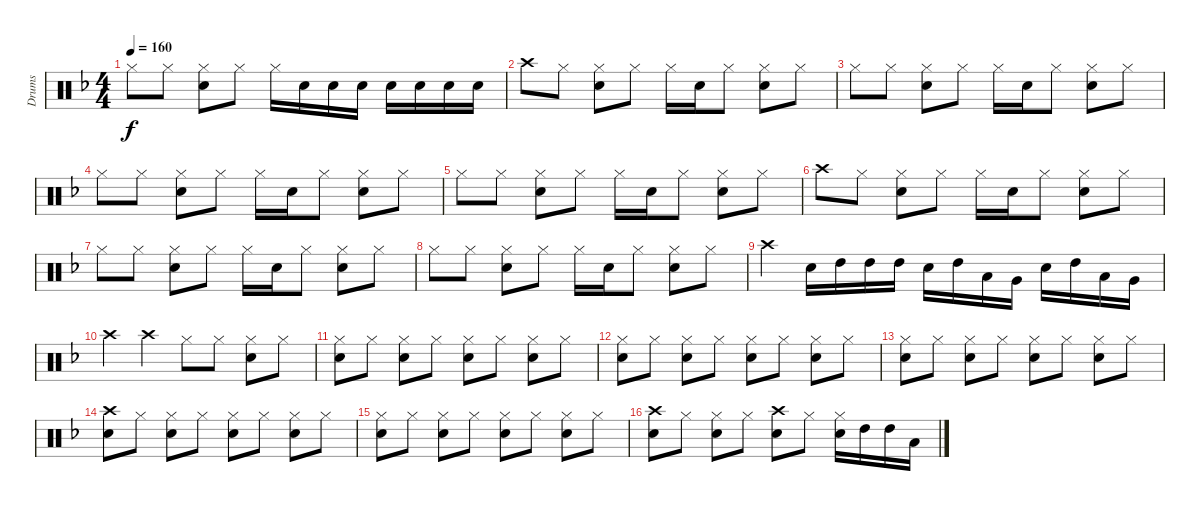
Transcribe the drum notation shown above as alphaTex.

\track ("Drums" "Drums") {instrument percussion}
\staff {score}
\articulation defaults
\ts (4 4)
\tempo 160
\clef neutral
\ks f "Hi-Hat (closed)".8{dy f} "Hi-Hat (closed)".8
("Hi-Hat (closed)" "Snare (hit) 2").8 "Hi-Hat (closed)".8 "Hi-Hat (closed)".16 "Snare (hit) 2".16 "Snare (hit) 2".16 "Snare (hit) 2".16 "Snare (hit) 2".16 "Snare (hit) 2".16 "Snare (hit) 2".16 "Snare (hit) 2".16 |
"Crash high (hit)".8 "Hi-Hat (closed)".8 ("Hi-Hat (closed)" "Snare (hit) 2").8 "Hi-Hat (closed)".8 "Hi-Hat (closed)".16 "Snare (hit) 2".16 "Hi-Hat (closed)".8 ("Hi-Hat (closed)" "Snare (hit) 2").8 "Hi-Hat (closed)".8 |
"Hi-Hat (closed)".8 "Hi-Hat (closed)".8 ("Hi-Hat (closed)" "Snare (hit) 2").8 "Hi-Hat (closed)".8 "Hi-Hat (closed)".16 "Snare (hit) 2".16 "Hi-Hat (closed)".8 ("Hi-Hat (closed)" "Snare (hit) 2").8 "Hi-Hat (closed)".8 |
"Hi-Hat (closed)".8 "Hi-Hat (closed)".8 ("Hi-Hat (closed)" "Snare (hit) 2").8 "Hi-Hat (closed)".8 "Hi-Hat (closed)".16 "Snare (hit) 2".16 "Hi-Hat (closed)".8 ("Hi-Hat (closed)" "Snare (hit) 2").8 "Hi-Hat (closed)".8 |
"Hi-Hat (closed)".8 "Hi-Hat (closed)".8 ("Hi-Hat (closed)" "Snare (hit) 2").8 "Hi-Hat (closed)".8 "Hi-Hat (closed)".16 "Snare (hit) 2".16 "Hi-Hat (closed)".8 ("Hi-Hat (closed)" "Snare (hit) 2").8 "Hi-Hat (closed)".8 |
"Crash high (hit)".8 "Hi-Hat (closed)".8 ("Hi-Hat (closed)" "Snare (hit) 2").8 "Hi-Hat (closed)".8 "Hi-Hat (closed)".16 "Snare (hit) 2".16 "Hi-Hat (closed)".8 ("Hi-Hat (closed)" "Snare (hit) 2").8 "Hi-Hat (closed)".8 |
"Hi-Hat (closed)".8 "Hi-Hat (closed)".8 ("Hi-Hat (closed)" "Snare (hit) 2").8 "Hi-Hat (closed)".8 "Hi-Hat (closed)".16 "Snare (hit) 2".16 "Hi-Hat (closed)".8 ("Hi-Hat (closed)" "Snare (hit) 2").8 "Hi-Hat (closed)".8 |
"Hi-Hat (closed)".8 "Hi-Hat (closed)".8 ("Hi-Hat (closed)" "Snare (hit) 2").8 "Hi-Hat (closed)".8 "Hi-Hat (closed)".16 "Snare (hit) 2".16 "Hi-Hat (closed)".8 ("Hi-Hat (closed)" "Snare (hit) 2").8 "Hi-Hat (closed)".8 |
"Crash high (hit)".4 "Snare (hit) 2".16 "High Tom (hit)".16 "High Tom (hit)".16 "High Tom (hit)".16 "Snare (hit) 2".16 "High Tom (hit)".16 "Low Tom (hit)".16 "Very Low Tom (hit)".16 "Snare (hit) 2".16 "High Tom (hit)".16 "Low Tom (hit)".16 "Very Low Tom (hit)".16 |
"Crash high (hit)".4 "Crash high (hit)".4 "Hi-Hat (closed)".8 "Hi-Hat (closed)".8 ("Hi-Hat (closed)" "Snare (hit) 2").8 "Hi-Hat (closed)".8 |
("Hi-Hat (closed)" "Snare (hit) 2").8 "Hi-Hat (closed)".8 ("Hi-Hat (closed)" "Snare (hit) 2").8 "Hi-Hat (closed)".8 ("Hi-Hat (closed)" "Snare (hit) 2").8 "Hi-Hat (closed)".8 ("Hi-Hat (closed)" "Snare (hit) 2").8 "Hi-Hat (closed)".8 |
("Hi-Hat (closed)" "Snare (hit) 2").8 "Hi-Hat (closed)".8 ("Hi-Hat (closed)" "Snare (hit) 2").8 "Hi-Hat (closed)".8 ("Hi-Hat (closed)" "Snare (hit) 2").8 "Hi-Hat (closed)".8 ("Hi-Hat (closed)" "Snare (hit) 2").8 "Hi-Hat (closed)".8 |
("Hi-Hat (closed)" "Snare (hit) 2").8 "Hi-Hat (closed)".8 ("Hi-Hat (closed)" "Snare (hit) 2").8 "Hi-Hat (closed)".8 ("Hi-Hat (closed)" "Snare (hit) 2").8 "Hi-Hat (closed)".8 ("Hi-Hat (closed)" "Snare (hit) 2").8 "Hi-Hat (closed)".8 |
("Crash high (hit)" "Snare (hit) 2").8 "Hi-Hat (closed)".8 ("Hi-Hat (closed)" "Snare (hit) 2").8 "Hi-Hat (closed)".8 ("Hi-Hat (closed)" "Snare (hit) 2").8 "Hi-Hat (closed)".8 ("Hi-Hat (closed)" "Snare (hit) 2").8 "Hi-Hat (closed)".8 |
("Hi-Hat (closed)" "Snare (hit) 2").8 "Hi-Hat (closed)".8 ("Hi-Hat (closed)" "Snare (hit) 2").8 "Hi-Hat (closed)".8 ("Hi-Hat (closed)" "Snare (hit) 2").8 "Hi-Hat (closed)".8 ("Hi-Hat (closed)" "Snare (hit) 2").8 "Hi-Hat (closed)".8 |
("Crash high (hit)" "Snare (hit) 2").8 "Hi-Hat (closed)".8 ("Hi-Hat (closed)" "Snare (hit) 2").8 "Hi-Hat (closed)".8 ("Crash high (hit)" "Snare (hit) 2").8 "Hi-Hat (closed)".8 ("Hi-Hat (closed)" "Snare (hit) 2").16 "High Tom (hit)".16 "High Tom (hit)".16 "Low Tom (hit)".16
